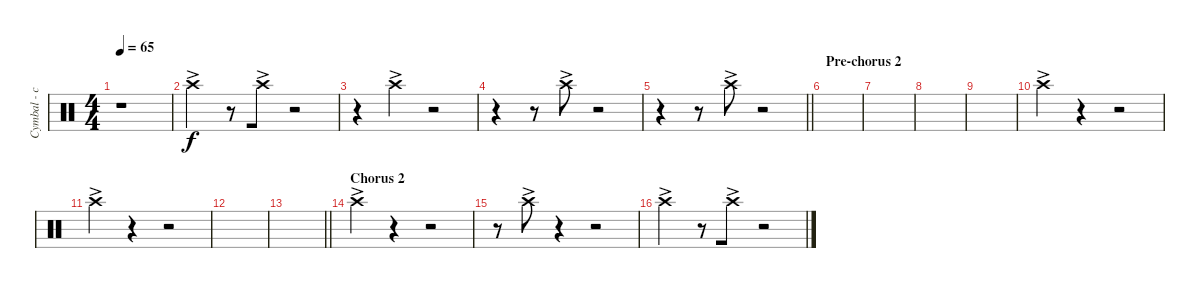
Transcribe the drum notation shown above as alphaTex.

\track ("Cymbal - crash - right" "Cymbal - c") {instrument percussion}
\staff {score}
\articulation defaults
\ts (4 4)
\tempo 65
\clef neutral
\ks c
r.1{dy f} |
"Crash high (hit)"{ac}.4{beam merge} r.8 "Crash high (hit)"{ac}.8 r.2 |
r.4{beam merge} "Crash high (hit)"{ac}.4 r.2 |
r.4{beam merge} r.8 "Crash high (hit)"{ac}.8 r.2 |
\barLineRight lightlight
r.4{beam merge} r.8 "Crash high (hit)"{ac}.8 r.2 |
\section ("" "Pre-chorus 2")
|
|
|
|
"Crash high (hit)"{ac}.4 r.4 r.2 |
"Crash high (hit)"{ac}.4 r.4 r.2 |
|
\barLineRight lightlight
|
\section ("" "Chorus 2")
"Crash high (hit)"{ac}.4 r.4 r.2 |
r.8 "Crash high (hit)"{ac}.8 r.4 r.2 |
"Crash high (hit)"{ac}.4{beam merge} r.8 "Crash high (hit)"{ac}.8 r.2
